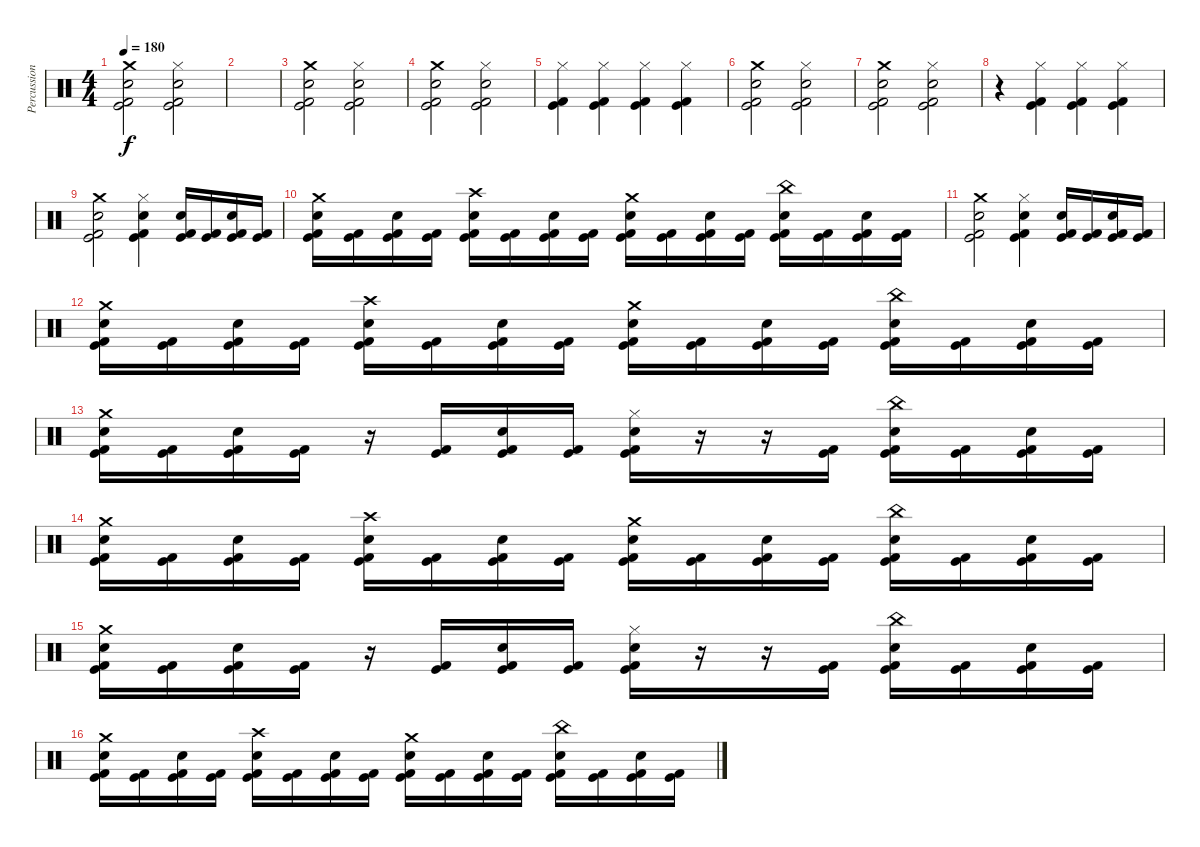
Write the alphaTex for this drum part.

\track ("Percussion" "Percussion") {instrument percussion}
\staff {score}
\articulation defaults
\ts (4 4)
\tempo 180
\clef neutral
\ks c
("Crash medium (hit)" "Electric Snare (hit)" "Kick (hit)" "Kick (hit) 2").2{dy f} ("Hi-Hat (closed)" "Electric Snare (hit)" "Kick (hit)" "Kick (hit) 2").2 |
|
("Crash medium (hit)" "Electric Snare (hit)" "Kick (hit)" "Kick (hit) 2").2 ("Hi-Hat (closed)" "Electric Snare (hit)" "Kick (hit)" "Kick (hit) 2").2 |
("Crash medium (hit)" "Electric Snare (hit)" "Kick (hit)" "Kick (hit) 2").2 ("Hi-Hat (closed)" "Electric Snare (hit)" "Kick (hit)" "Kick (hit) 2").2 |
("Hi-Hat (closed)" "Kick (hit)" "Kick (hit) 2").4 ("Hi-Hat (closed)" "Kick (hit)" "Kick (hit) 2").4 ("Hi-Hat (closed)" "Kick (hit)" "Kick (hit) 2").4 ("Hi-Hat (closed)" "Kick (hit)" "Kick (hit) 2").4 |
("Crash medium (hit)" "Electric Snare (hit)" "Kick (hit)" "Kick (hit) 2").2 ("Hi-Hat (closed)" "Electric Snare (hit)" "Kick (hit)" "Kick (hit) 2").2 |
("Crash medium (hit)" "Electric Snare (hit)" "Kick (hit)" "Kick (hit) 2").2 ("Hi-Hat (closed)" "Electric Snare (hit)" "Kick (hit)" "Kick (hit) 2").2 |
r.4 ("Hi-Hat (closed)" "Kick (hit)" "Kick (hit) 2").4 ("Hi-Hat (closed)" "Kick (hit)" "Kick (hit) 2").4 ("Hi-Hat (closed)" "Kick (hit)" "Kick (hit) 2").4 |
("Crash medium (hit)" "Electric Snare (hit)" "Kick (hit)" "Kick (hit) 2").2 ("Hi-Hat (closed)" "Electric Snare (hit)" "Kick (hit)" "Kick (hit) 2").4 ("Electric Snare (hit)" "Kick (hit)" "Kick (hit) 2").16 ("Kick (hit)" "Kick (hit) 2").16 ("Electric Snare (hit)" "Kick (hit)" "Kick (hit) 2").16 ("Kick (hit)" "Kick (hit) 2").16 |
("Crash medium (hit)" "Electric Snare (hit)" "Kick (hit)" "Kick (hit) 2").16 ("Kick (hit)" "Kick (hit) 2").16 ("Electric Snare (hit)" "Kick (hit)" "Kick (hit) 2").16 ("Kick (hit)" "Kick (hit) 2").16 ("Crash high (hit)" "Electric Snare (hit)" "Kick (hit)" "Kick (hit) 2").16 ("Kick (hit)" "Kick (hit) 2").16 ("Electric Snare (hit)" "Kick (hit)" "Kick (hit) 2").16 ("Kick (hit)" "Kick (hit) 2").16 ("Crash medium (hit)" "Electric Snare (hit)" "Kick (hit)" "Kick (hit) 2").16 ("Kick (hit)" "Kick (hit) 2").16 ("Electric Snare (hit)" "Kick (hit)" "Kick (hit) 2").16 ("Kick (hit)" "Kick (hit) 2").16 ("China (hit)" "Electric Snare (hit)" "Kick (hit)" "Kick (hit) 2").16 ("Kick (hit)" "Kick (hit) 2").16 ("Electric Snare (hit)" "Kick (hit)" "Kick (hit) 2").16 ("Kick (hit)" "Kick (hit) 2").16 |
("Crash medium (hit)" "Electric Snare (hit)" "Kick (hit)" "Kick (hit) 2").2 ("Hi-Hat (closed)" "Electric Snare (hit)" "Kick (hit)" "Kick (hit) 2").4 ("Electric Snare (hit)" "Kick (hit)" "Kick (hit) 2").16 ("Kick (hit)" "Kick (hit) 2").16 ("Electric Snare (hit)" "Kick (hit)" "Kick (hit) 2").16 ("Kick (hit)" "Kick (hit) 2").16 |
("Crash medium (hit)" "Electric Snare (hit)" "Kick (hit)" "Kick (hit) 2").16 ("Kick (hit)" "Kick (hit) 2").16 ("Electric Snare (hit)" "Kick (hit)" "Kick (hit) 2").16 ("Kick (hit)" "Kick (hit) 2").16 ("Crash high (hit)" "Electric Snare (hit)" "Kick (hit)" "Kick (hit) 2").16 ("Kick (hit)" "Kick (hit) 2").16 ("Electric Snare (hit)" "Kick (hit)" "Kick (hit) 2").16 ("Kick (hit)" "Kick (hit) 2").16 ("Crash medium (hit)" "Electric Snare (hit)" "Kick (hit)" "Kick (hit) 2").16 ("Kick (hit)" "Kick (hit) 2").16 ("Electric Snare (hit)" "Kick (hit)" "Kick (hit) 2").16 ("Kick (hit)" "Kick (hit) 2").16 ("China (hit)" "Electric Snare (hit)" "Kick (hit)" "Kick (hit) 2").16 ("Kick (hit)" "Kick (hit) 2").16 ("Electric Snare (hit)" "Kick (hit)" "Kick (hit) 2").16 ("Kick (hit)" "Kick (hit) 2").16 |
("Crash medium (hit)" "Electric Snare (hit)" "Kick (hit)" "Kick (hit) 2").16 ("Kick (hit)" "Kick (hit) 2").16 ("Electric Snare (hit)" "Kick (hit)" "Kick (hit) 2").16 ("Kick (hit)" "Kick (hit) 2").16 r.16 ("Kick (hit)" "Kick (hit) 2").16 ("Electric Snare (hit)" "Kick (hit)" "Kick (hit) 2").16 ("Kick (hit)" "Kick (hit) 2").16 ("Hi-Hat (closed)" "Electric Snare (hit)" "Kick (hit)" "Kick (hit) 2").16 r.16 r.16 ("Kick (hit)" "Kick (hit) 2").16 ("China (hit)" "Electric Snare (hit)" "Kick (hit)" "Kick (hit) 2").16 ("Kick (hit)" "Kick (hit) 2").16 ("Electric Snare (hit)" "Kick (hit)" "Kick (hit) 2").16 ("Kick (hit)" "Kick (hit) 2").16 |
("Crash medium (hit)" "Electric Snare (hit)" "Kick (hit)" "Kick (hit) 2").16 ("Kick (hit)" "Kick (hit) 2").16 ("Electric Snare (hit)" "Kick (hit)" "Kick (hit) 2").16 ("Kick (hit)" "Kick (hit) 2").16 ("Crash high (hit)" "Electric Snare (hit)" "Kick (hit)" "Kick (hit) 2").16 ("Kick (hit)" "Kick (hit) 2").16 ("Electric Snare (hit)" "Kick (hit)" "Kick (hit) 2").16 ("Kick (hit)" "Kick (hit) 2").16 ("Crash medium (hit)" "Electric Snare (hit)" "Kick (hit)" "Kick (hit) 2").16 ("Kick (hit)" "Kick (hit) 2").16 ("Electric Snare (hit)" "Kick (hit)" "Kick (hit) 2").16 ("Kick (hit)" "Kick (hit) 2").16 ("China (hit)" "Electric Snare (hit)" "Kick (hit)" "Kick (hit) 2").16 ("Kick (hit)" "Kick (hit) 2").16 ("Electric Snare (hit)" "Kick (hit)" "Kick (hit) 2").16 ("Kick (hit)" "Kick (hit) 2").16 |
("Crash medium (hit)" "Electric Snare (hit)" "Kick (hit)" "Kick (hit) 2").16 ("Kick (hit)" "Kick (hit) 2").16 ("Electric Snare (hit)" "Kick (hit)" "Kick (hit) 2").16 ("Kick (hit)" "Kick (hit) 2").16 r.16 ("Kick (hit)" "Kick (hit) 2").16 ("Electric Snare (hit)" "Kick (hit)" "Kick (hit) 2").16 ("Kick (hit)" "Kick (hit) 2").16 ("Hi-Hat (closed)" "Electric Snare (hit)" "Kick (hit)" "Kick (hit) 2").16 r.16 r.16 ("Kick (hit)" "Kick (hit) 2").16 ("China (hit)" "Electric Snare (hit)" "Kick (hit)" "Kick (hit) 2").16 ("Kick (hit)" "Kick (hit) 2").16 ("Electric Snare (hit)" "Kick (hit)" "Kick (hit) 2").16 ("Kick (hit)" "Kick (hit) 2").16 |
("Crash medium (hit)" "Electric Snare (hit)" "Kick (hit)" "Kick (hit) 2").16 ("Kick (hit)" "Kick (hit) 2").16 ("Electric Snare (hit)" "Kick (hit)" "Kick (hit) 2").16 ("Kick (hit)" "Kick (hit) 2").16 ("Crash high (hit)" "Electric Snare (hit)" "Kick (hit)" "Kick (hit) 2").16 ("Kick (hit)" "Kick (hit) 2").16 ("Electric Snare (hit)" "Kick (hit)" "Kick (hit) 2").16 ("Kick (hit)" "Kick (hit) 2").16 ("Crash medium (hit)" "Electric Snare (hit)" "Kick (hit)" "Kick (hit) 2").16 ("Kick (hit)" "Kick (hit) 2").16 ("Electric Snare (hit)" "Kick (hit)" "Kick (hit) 2").16 ("Kick (hit)" "Kick (hit) 2").16 ("China (hit)" "Electric Snare (hit)" "Kick (hit)" "Kick (hit) 2").16 ("Kick (hit)" "Kick (hit) 2").16 ("Electric Snare (hit)" "Kick (hit)" "Kick (hit) 2").16 ("Kick (hit)" "Kick (hit) 2").16
